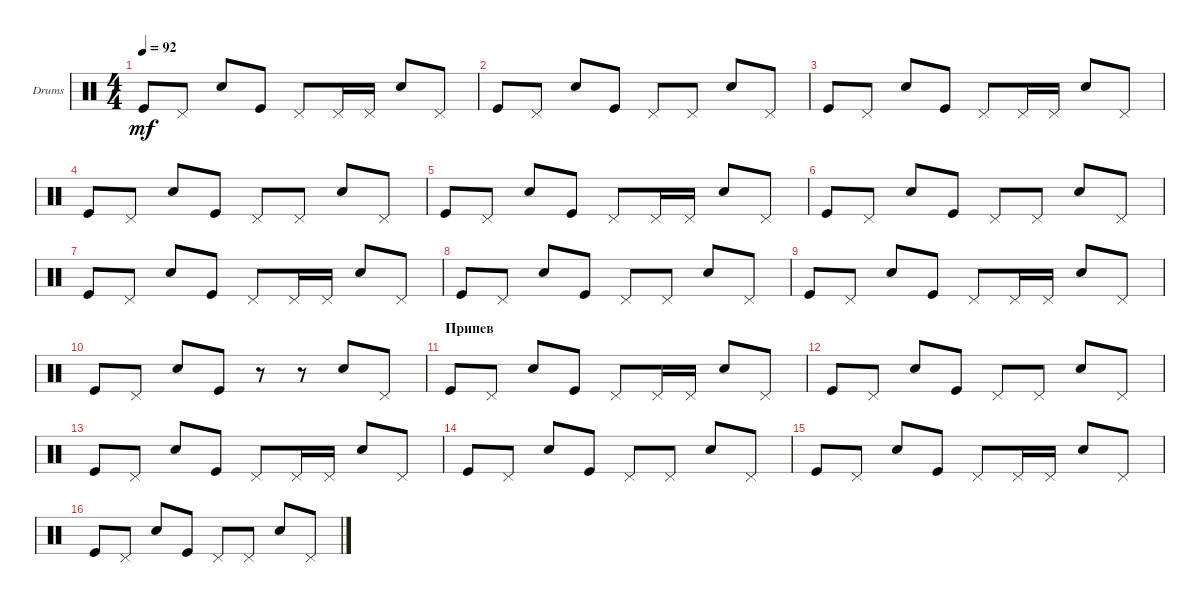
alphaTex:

\defaultSystemsLayout 4
\bracketExtendMode groupsimilarinstruments
\firstSystemTrackNameOrientation horizontal
\otherSystemsTrackNameOrientation horizontal
\track ("Drumkit" "Drums") {instrument percussion}
\staff {score}
\articulation defaults
\ts (4 4)
\tempo 92
\clef neutral
\ks c "Kick (hit)".8{dy mf} "Pedal Hi-Hat (hit)".8 "Snare (hit) 2".8 "Kick (hit)".8 "Pedal Hi-Hat (hit)".8 "Pedal Hi-Hat (hit)".16 "Pedal Hi-Hat (hit)".16 "Snare (hit) 2".8 "Pedal Hi-Hat (hit)".8
|
"Kick (hit)".8 "Pedal Hi-Hat (hit)".8 "Snare (hit) 2".8 "Kick (hit)".8 "Pedal Hi-Hat (hit)".8 "Pedal Hi-Hat (hit)".8 "Snare (hit) 2".8 "Pedal Hi-Hat (hit)".8 |
"Kick (hit)".8 "Pedal Hi-Hat (hit)".8 "Snare (hit) 2".8 "Kick (hit)".8 "Pedal Hi-Hat (hit)".8 "Pedal Hi-Hat (hit)".16 "Pedal Hi-Hat (hit)".16 "Snare (hit) 2".8 "Pedal Hi-Hat (hit)".8 |
"Kick (hit)".8 "Pedal Hi-Hat (hit)".8 "Snare (hit) 2".8 "Kick (hit)".8 "Pedal Hi-Hat (hit)".8 "Pedal Hi-Hat (hit)".8 "Snare (hit) 2".8 "Pedal Hi-Hat (hit)".8 |
"Kick (hit)".8 "Pedal Hi-Hat (hit)".8 "Snare (hit) 2".8 "Kick (hit)".8 "Pedal Hi-Hat (hit)".8 "Pedal Hi-Hat (hit)".16 "Pedal Hi-Hat (hit)".16 "Snare (hit) 2".8 "Pedal Hi-Hat (hit)".8 |
"Kick (hit)".8 "Pedal Hi-Hat (hit)".8 "Snare (hit) 2".8 "Kick (hit)".8 "Pedal Hi-Hat (hit)".8 "Pedal Hi-Hat (hit)".8 "Snare (hit) 2".8 "Pedal Hi-Hat (hit)".8 |
"Kick (hit)".8 "Pedal Hi-Hat (hit)".8 "Snare (hit) 2".8 "Kick (hit)".8 "Pedal Hi-Hat (hit)".8 "Pedal Hi-Hat (hit)".16 "Pedal Hi-Hat (hit)".16 "Snare (hit) 2".8 "Pedal Hi-Hat (hit)".8 |
"Kick (hit)".8 "Pedal Hi-Hat (hit)".8 "Snare (hit) 2".8 "Kick (hit)".8 "Pedal Hi-Hat (hit)".8 "Pedal Hi-Hat (hit)".8 "Snare (hit) 2".8 "Pedal Hi-Hat (hit)".8 |
"Kick (hit)".8 "Pedal Hi-Hat (hit)".8 "Snare (hit) 2".8 "Kick (hit)".8 "Pedal Hi-Hat (hit)".8 "Pedal Hi-Hat (hit)".16 "Pedal Hi-Hat (hit)".16 "Snare (hit) 2".8 "Pedal Hi-Hat (hit)".8 |
"Kick (hit)".8 "Pedal Hi-Hat (hit)".8 "Snare (hit) 2".8 "Kick (hit)".8 r.8 r.8 "Snare (hit) 2".8 "Pedal Hi-Hat (hit)".8 |
\section ("" "Припев")
"Kick (hit)".8 "Pedal Hi-Hat (hit)".8 "Snare (hit) 2".8 "Kick (hit)".8 "Pedal Hi-Hat (hit)".8 "Pedal Hi-Hat (hit)".16 "Pedal Hi-Hat (hit)".16 "Snare (hit) 2".8 "Pedal Hi-Hat (hit)".8 |
"Kick (hit)".8 "Pedal Hi-Hat (hit)".8 "Snare (hit) 2".8 "Kick (hit)".8 "Pedal Hi-Hat (hit)".8 "Pedal Hi-Hat (hit)".8 "Snare (hit) 2".8 "Pedal Hi-Hat (hit)".8 |
"Kick (hit)".8 "Pedal Hi-Hat (hit)".8 "Snare (hit) 2".8 "Kick (hit)".8 "Pedal Hi-Hat (hit)".8 "Pedal Hi-Hat (hit)".16 "Pedal Hi-Hat (hit)".16 "Snare (hit) 2".8 "Pedal Hi-Hat (hit)".8 |
"Kick (hit)".8 "Pedal Hi-Hat (hit)".8 "Snare (hit) 2".8 "Kick (hit)".8 "Pedal Hi-Hat (hit)".8 "Pedal Hi-Hat (hit)".8 "Snare (hit) 2".8 "Pedal Hi-Hat (hit)".8 |
"Kick (hit)".8 "Pedal Hi-Hat (hit)".8 "Snare (hit) 2".8 "Kick (hit)".8 "Pedal Hi-Hat (hit)".8 "Pedal Hi-Hat (hit)".16 "Pedal Hi-Hat (hit)".16 "Snare (hit) 2".8 "Pedal Hi-Hat (hit)".8 |
"Kick (hit)".8 "Pedal Hi-Hat (hit)".8 "Snare (hit) 2".8 "Kick (hit)".8 "Pedal Hi-Hat (hit)".8 "Pedal Hi-Hat (hit)".8 "Snare (hit) 2".8 "Pedal Hi-Hat (hit)".8
